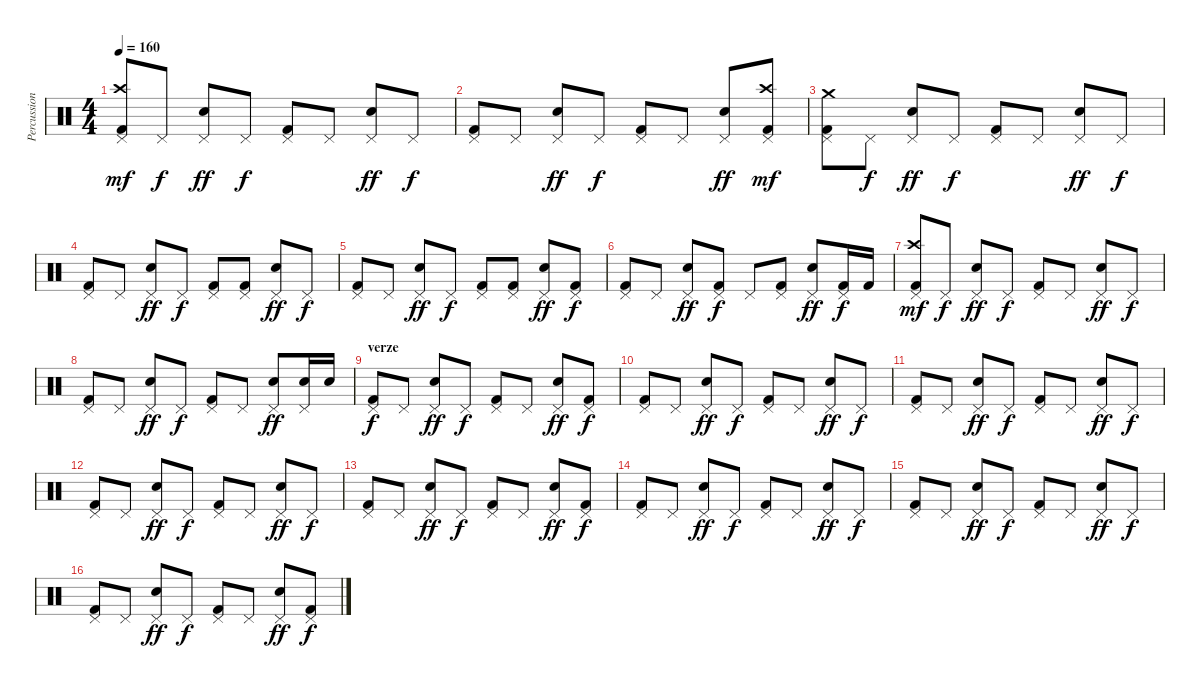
\track ("Percussion" "Percussion") {instrument percussion}
\staff {score}
\articulation defaults
\ts (4 4)
\tempo 160
\clef neutral
\ks c
("Pedal Hi-Hat (hit)" "Crash high (hit)" "Kick (hit) 2").8{dy mf} "Pedal Hi-Hat (hit)".8{dy f} ("Pedal Hi-Hat (hit)" "Electric Snare (hit)").8{dy ff} "Pedal Hi-Hat (hit)".8{dy f} ("Pedal Hi-Hat (hit)" "Kick (hit) 2").8 "Pedal Hi-Hat (hit)".8 ("Pedal Hi-Hat (hit)" "Electric Snare (hit)").8{dy ff} "Pedal Hi-Hat (hit)".8{dy f} |
("Pedal Hi-Hat (hit)" "Kick (hit) 2").8 "Pedal Hi-Hat (hit)".8 ("Pedal Hi-Hat (hit)" "Electric Snare (hit)").8{dy ff} "Pedal Hi-Hat (hit)".8{dy f} ("Pedal Hi-Hat (hit)" "Kick (hit) 2").8 "Pedal Hi-Hat (hit)".8 ("Pedal Hi-Hat (hit)" "Electric Snare (hit)").8{dy ff} ("Pedal Hi-Hat (hit)" "Crash high (hit)" "Kick (hit) 2").8{dy mf} |
("Pedal Hi-Hat (hit)" "Crash medium (hit)" "Kick (hit) 2").8 "Pedal Hi-Hat (hit)".8{dy f} ("Pedal Hi-Hat (hit)" "Electric Snare (hit)").8{dy ff} "Pedal Hi-Hat (hit)".8{dy f} ("Pedal Hi-Hat (hit)" "Kick (hit) 2").8 "Pedal Hi-Hat (hit)".8 ("Pedal Hi-Hat (hit)" "Electric Snare (hit)").8{dy ff} "Pedal Hi-Hat (hit)".8{dy f} |
("Pedal Hi-Hat (hit)" "Kick (hit) 2").8 "Pedal Hi-Hat (hit)".8 ("Pedal Hi-Hat (hit)" "Electric Snare (hit)").8{dy ff} "Pedal Hi-Hat (hit)".8{dy f} ("Pedal Hi-Hat (hit)" "Kick (hit) 2").8 ("Pedal Hi-Hat (hit)" "Kick (hit) 2").8 ("Pedal Hi-Hat (hit)" "Electric Snare (hit)").8{dy ff} "Pedal Hi-Hat (hit)".8{dy f} |
("Pedal Hi-Hat (hit)" "Kick (hit) 2").8 "Pedal Hi-Hat (hit)".8 ("Pedal Hi-Hat (hit)" "Electric Snare (hit)").8{dy ff} "Pedal Hi-Hat (hit)".8{dy f} ("Pedal Hi-Hat (hit)" "Kick (hit) 2").8 ("Pedal Hi-Hat (hit)" "Kick (hit) 2").8 ("Pedal Hi-Hat (hit)" "Electric Snare (hit)").8{dy ff} ("Pedal Hi-Hat (hit)" "Kick (hit) 2").8{dy f} |
("Pedal Hi-Hat (hit)" "Kick (hit) 2").8 "Pedal Hi-Hat (hit)".8 ("Pedal Hi-Hat (hit)" "Electric Snare (hit)").8{dy ff} ("Pedal Hi-Hat (hit)" "Kick (hit) 2").8{dy f} "Pedal Hi-Hat (hit)".8 ("Pedal Hi-Hat (hit)" "Kick (hit) 2").8 ("Pedal Hi-Hat (hit)" "Electric Snare (hit)").8{dy ff} ("Pedal Hi-Hat (hit)" "Kick (hit) 2").16{dy f} "Kick (hit) 2".16 |
("Pedal Hi-Hat (hit)" "Crash high (hit)" "Kick (hit) 2").8{dy mf} "Pedal Hi-Hat (hit)".8{dy f} ("Pedal Hi-Hat (hit)" "Electric Snare (hit)").8{dy ff} "Pedal Hi-Hat (hit)".8{dy f} ("Pedal Hi-Hat (hit)" "Kick (hit) 2").8 "Pedal Hi-Hat (hit)".8 ("Pedal Hi-Hat (hit)" "Electric Snare (hit)").8{dy ff} "Pedal Hi-Hat (hit)".8{dy f} |
("Pedal Hi-Hat (hit)" "Kick (hit) 2").8 "Pedal Hi-Hat (hit)".8 ("Pedal Hi-Hat (hit)" "Electric Snare (hit)").8{dy ff} "Pedal Hi-Hat (hit)".8{dy f} ("Pedal Hi-Hat (hit)" "Kick (hit) 2").8 "Pedal Hi-Hat (hit)".8 ("Pedal Hi-Hat (hit)" "Electric Snare (hit)").8{dy ff} ("Pedal Hi-Hat (hit)" "Electric Snare (hit)").16 "Electric Snare (hit)".16 |
\section ("" "verze")
("Pedal Hi-Hat (hit)" "Kick (hit) 2").8{dy f} "Pedal Hi-Hat (hit)".8 ("Pedal Hi-Hat (hit)" "Electric Snare (hit)").8{dy ff} "Pedal Hi-Hat (hit)".8{dy f} ("Pedal Hi-Hat (hit)" "Kick (hit) 2").8 "Pedal Hi-Hat (hit)".8 ("Pedal Hi-Hat (hit)" "Electric Snare (hit)").8{dy ff} ("Pedal Hi-Hat (hit)" "Kick (hit) 2").8{dy f} |
("Pedal Hi-Hat (hit)" "Kick (hit) 2").8 "Pedal Hi-Hat (hit)".8 ("Pedal Hi-Hat (hit)" "Electric Snare (hit)").8{dy ff} "Pedal Hi-Hat (hit)".8{dy f} ("Pedal Hi-Hat (hit)" "Kick (hit) 2").8 "Pedal Hi-Hat (hit)".8 ("Pedal Hi-Hat (hit)" "Electric Snare (hit)").8{dy ff} "Pedal Hi-Hat (hit)".8{dy f} |
("Pedal Hi-Hat (hit)" "Kick (hit) 2").8 "Pedal Hi-Hat (hit)".8 ("Pedal Hi-Hat (hit)" "Electric Snare (hit)").8{dy ff} "Pedal Hi-Hat (hit)".8{dy f} ("Pedal Hi-Hat (hit)" "Kick (hit) 2").8 "Pedal Hi-Hat (hit)".8 ("Pedal Hi-Hat (hit)" "Electric Snare (hit)").8{dy ff} "Pedal Hi-Hat (hit)".8{dy f} |
("Pedal Hi-Hat (hit)" "Kick (hit) 2").8 "Pedal Hi-Hat (hit)".8 ("Pedal Hi-Hat (hit)" "Electric Snare (hit)").8{dy ff} "Pedal Hi-Hat (hit)".8{dy f} ("Pedal Hi-Hat (hit)" "Kick (hit) 2").8 "Pedal Hi-Hat (hit)".8 ("Pedal Hi-Hat (hit)" "Electric Snare (hit)").8{dy ff} "Pedal Hi-Hat (hit)".8{dy f} |
("Pedal Hi-Hat (hit)" "Kick (hit) 2").8 "Pedal Hi-Hat (hit)".8 ("Pedal Hi-Hat (hit)" "Electric Snare (hit)").8{dy ff} "Pedal Hi-Hat (hit)".8{dy f} ("Pedal Hi-Hat (hit)" "Kick (hit) 2").8 "Pedal Hi-Hat (hit)".8 ("Pedal Hi-Hat (hit)" "Electric Snare (hit)").8{dy ff} ("Pedal Hi-Hat (hit)" "Kick (hit) 2").8{dy f} |
("Pedal Hi-Hat (hit)" "Kick (hit) 2").8 "Pedal Hi-Hat (hit)".8 ("Pedal Hi-Hat (hit)" "Electric Snare (hit)").8{dy ff} "Pedal Hi-Hat (hit)".8{dy f} ("Pedal Hi-Hat (hit)" "Kick (hit) 2").8 "Pedal Hi-Hat (hit)".8 ("Pedal Hi-Hat (hit)" "Electric Snare (hit)").8{dy ff} "Pedal Hi-Hat (hit)".8{dy f} |
("Pedal Hi-Hat (hit)" "Kick (hit) 2").8 "Pedal Hi-Hat (hit)".8 ("Pedal Hi-Hat (hit)" "Electric Snare (hit)").8{dy ff} "Pedal Hi-Hat (hit)".8{dy f} ("Pedal Hi-Hat (hit)" "Kick (hit) 2").8 "Pedal Hi-Hat (hit)".8 ("Pedal Hi-Hat (hit)" "Electric Snare (hit)").8{dy ff} "Pedal Hi-Hat (hit)".8{dy f} |
("Pedal Hi-Hat (hit)" "Kick (hit) 2").8 "Pedal Hi-Hat (hit)".8 ("Pedal Hi-Hat (hit)" "Electric Snare (hit)").8{dy ff} "Pedal Hi-Hat (hit)".8{dy f} ("Pedal Hi-Hat (hit)" "Kick (hit) 2").8 "Pedal Hi-Hat (hit)".8 ("Pedal Hi-Hat (hit)" "Electric Snare (hit)").8{dy ff} ("Pedal Hi-Hat (hit)" "Kick (hit) 2").8{dy f}
